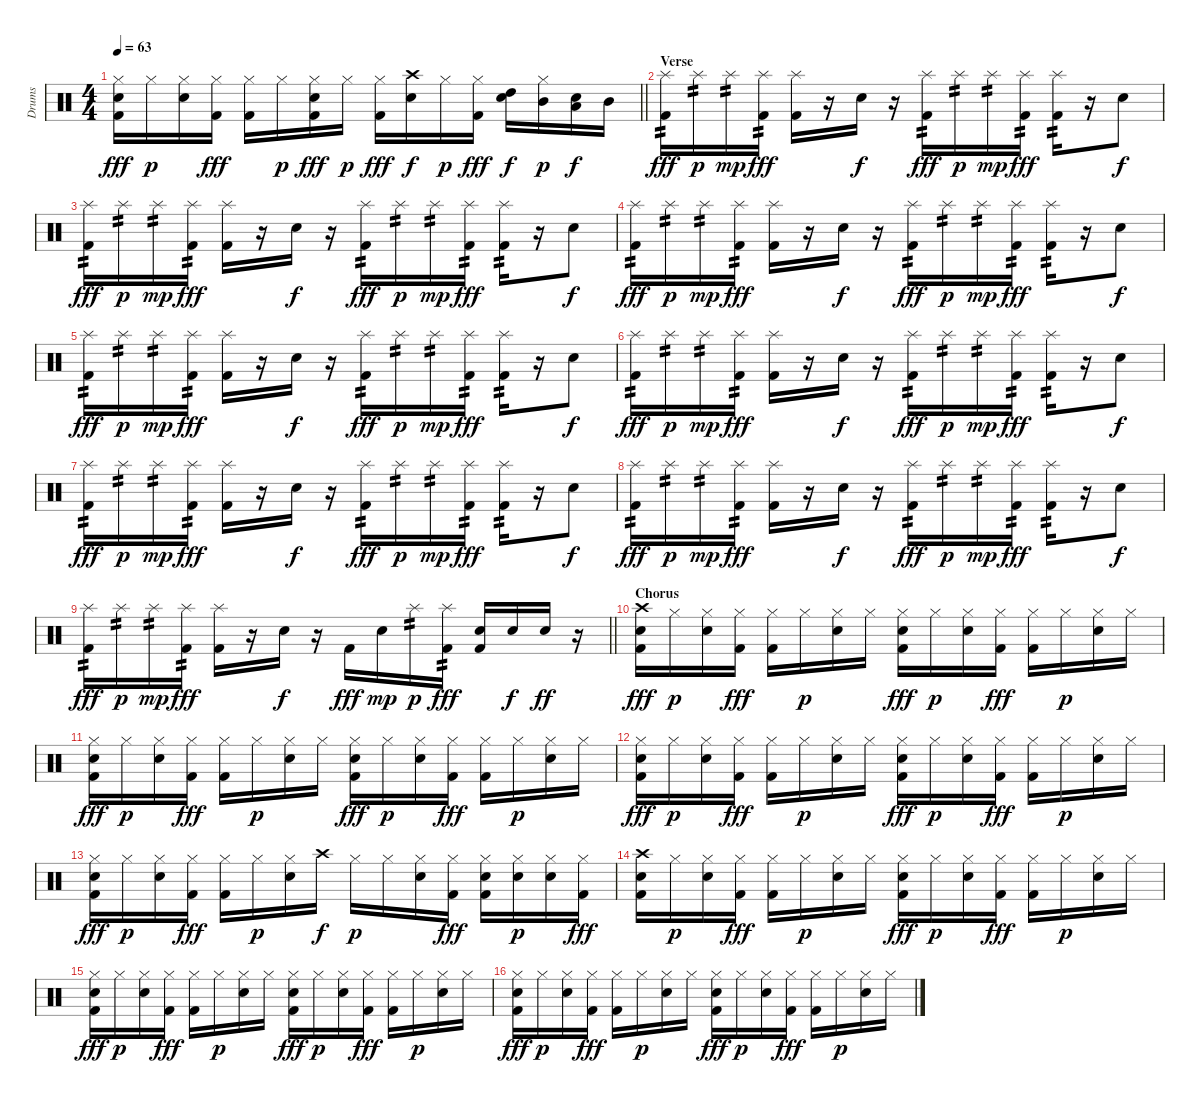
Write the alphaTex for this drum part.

\track ("Drums" "Drums") {instrument percussion}
\staff {score}
\articulation defaults
\ts (4 4)
\tempo 63
\clef neutral
\barLineRight lightlight
\ks c
("Electric Snare (hit)" "Hi-Hat (closed)" "Kick (hit) 2").16{dy fff} "Hi-Hat (closed)".16{dy p} ("Electric Snare (hit)" "Hi-Hat (closed)").16 ("Hi-Hat (closed)" "Kick (hit) 2").16{dy fff} ("Hi-Hat (closed)" "Kick (hit) 2").16 "Hi-Hat (closed)".16{dy p} ("Electric Snare (hit)" "Hi-Hat (closed)" "Kick (hit) 2").16{dy fff} "Hi-Hat (closed)".16{dy p} ("Hi-Hat (closed)" "Kick (hit) 2").16{dy fff} ("Electric Snare (hit)" "Crash high (hit)").16{dy f} "Hi-Hat (closed)".16{dy p} ("Hi-Hat (closed)" "Kick (hit) 2").16{dy fff} ("Electric Snare (hit)" "High Tom (hit)").16{dy f} ("Hi-Hat (closed)" "Mid Tom (hit)").16{dy p} ("Electric Snare (hit)" "Low Tom (hit)").16{dy f} "Mid Tom (hit)".16 |
\section ("" "Verse")
("Splash (hit)" "Kick (hit) 2").16{tp 2 dy fff} "Splash (hit)".16{tp 2 dy p} "Splash (hit)".16{tp 2 dy mp} ("Splash (hit)" "Kick (hit) 2").16{tp 2 dy fff} ("Splash (hit)" "Kick (hit) 2").16 r.16 "Electric Snare (hit)".16{dy f} r.16 ("Splash (hit)" "Kick (hit) 2").16{tp 2 dy fff} "Splash (hit)".16{tp 2 dy p} "Splash (hit)".16{tp 2 dy mp} ("Splash (hit)" "Kick (hit) 2").16{tp 2 dy fff} ("Splash (hit)" "Kick (hit) 2").16{tp 2} r.16 "Electric Snare (hit)".8{dy f} |
("Splash (hit)" "Kick (hit) 2").16{tp 2 dy fff} "Splash (hit)".16{tp 2 dy p} "Splash (hit)".16{tp 2 dy mp} ("Splash (hit)" "Kick (hit) 2").16{tp 2 dy fff} ("Splash (hit)" "Kick (hit) 2").16 r.16 "Electric Snare (hit)".16{dy f} r.16 ("Splash (hit)" "Kick (hit) 2").16{tp 2 dy fff} "Splash (hit)".16{tp 2 dy p} "Splash (hit)".16{tp 2 dy mp} ("Splash (hit)" "Kick (hit) 2").16{tp 2 dy fff} ("Splash (hit)" "Kick (hit) 2").16{tp 2} r.16 "Electric Snare (hit)".8{dy f} |
("Splash (hit)" "Kick (hit) 2").16{tp 2 dy fff} "Splash (hit)".16{tp 2 dy p} "Splash (hit)".16{tp 2 dy mp} ("Splash (hit)" "Kick (hit) 2").16{tp 2 dy fff} ("Splash (hit)" "Kick (hit) 2").16 r.16 "Electric Snare (hit)".16{dy f} r.16 ("Splash (hit)" "Kick (hit) 2").16{tp 2 dy fff} "Splash (hit)".16{tp 2 dy p} "Splash (hit)".16{tp 2 dy mp} ("Splash (hit)" "Kick (hit) 2").16{tp 2 dy fff} ("Splash (hit)" "Kick (hit) 2").16{tp 2} r.16 "Electric Snare (hit)".8{dy f} |
("Splash (hit)" "Kick (hit) 2").16{tp 2 dy fff} "Splash (hit)".16{tp 2 dy p} "Splash (hit)".16{tp 2 dy mp} ("Splash (hit)" "Kick (hit) 2").16{tp 2 dy fff} ("Splash (hit)" "Kick (hit) 2").16 r.16 "Electric Snare (hit)".16{dy f} r.16 ("Splash (hit)" "Kick (hit) 2").16{tp 2 dy fff} "Splash (hit)".16{tp 2 dy p} "Splash (hit)".16{tp 2 dy mp} ("Splash (hit)" "Kick (hit) 2").16{tp 2 dy fff} ("Splash (hit)" "Kick (hit) 2").16{tp 2} r.16 "Electric Snare (hit)".8{dy f} |
("Splash (hit)" "Kick (hit) 2").16{tp 2 dy fff} "Splash (hit)".16{tp 2 dy p} "Splash (hit)".16{tp 2 dy mp} ("Splash (hit)" "Kick (hit) 2").16{tp 2 dy fff} ("Splash (hit)" "Kick (hit) 2").16 r.16 "Electric Snare (hit)".16{dy f} r.16 ("Splash (hit)" "Kick (hit) 2").16{tp 2 dy fff} "Splash (hit)".16{tp 2 dy p} "Splash (hit)".16{tp 2 dy mp} ("Splash (hit)" "Kick (hit) 2").16{tp 2 dy fff} ("Splash (hit)" "Kick (hit) 2").16{tp 2} r.16 "Electric Snare (hit)".8{dy f} |
("Splash (hit)" "Kick (hit) 2").16{tp 2 dy fff} "Splash (hit)".16{tp 2 dy p} "Splash (hit)".16{tp 2 dy mp} ("Splash (hit)" "Kick (hit) 2").16{tp 2 dy fff} ("Splash (hit)" "Kick (hit) 2").16 r.16 "Electric Snare (hit)".16{dy f} r.16 ("Splash (hit)" "Kick (hit) 2").16{tp 2 dy fff} "Splash (hit)".16{tp 2 dy p} "Splash (hit)".16{tp 2 dy mp} ("Splash (hit)" "Kick (hit) 2").16{tp 2 dy fff} ("Splash (hit)" "Kick (hit) 2").16{tp 2} r.16 "Electric Snare (hit)".8{dy f} |
("Splash (hit)" "Kick (hit) 2").16{tp 2 dy fff} "Splash (hit)".16{tp 2 dy p} "Splash (hit)".16{tp 2 dy mp} ("Splash (hit)" "Kick (hit) 2").16{tp 2 dy fff} ("Splash (hit)" "Kick (hit) 2").16 r.16 "Electric Snare (hit)".16{dy f} r.16 ("Splash (hit)" "Kick (hit) 2").16{tp 2 dy fff} "Splash (hit)".16{tp 2 dy p} "Splash (hit)".16{tp 2 dy mp} ("Splash (hit)" "Kick (hit) 2").16{tp 2 dy fff} ("Splash (hit)" "Kick (hit) 2").16{tp 2} r.16 "Electric Snare (hit)".8{dy f} |
\barLineRight lightlight
("Splash (hit)" "Kick (hit) 2").16{tp 2 dy fff} "Splash (hit)".16{tp 2 dy p} "Splash (hit)".16{tp 2 dy mp} ("Splash (hit)" "Kick (hit) 2").16{tp 2 dy fff} ("Splash (hit)" "Kick (hit) 2").16 r.16 "Electric Snare (hit)".16{dy f} r.16 "Kick (hit) 2".16{dy fff} "Electric Snare (hit)".16{dy mp} "Splash (hit)".16{tp 2 dy p} ("Splash (hit)" "Kick (hit) 2").16{tp 2 dy fff} ("Electric Snare (hit)" "Kick (hit) 2").16 "Electric Snare (hit)".16{dy f} "Electric Snare (hit)".16{dy ff} r.16 |
\section ("" "Chorus")
("Electric Snare (hit)" "Crash high (hit)" "Kick (hit) 2").16{dy fff} "Hi-Hat (closed)".16{dy p} ("Electric Snare (hit)" "Hi-Hat (closed)").16 ("Hi-Hat (closed)" "Kick (hit) 2").16{dy fff} ("Hi-Hat (closed)" "Kick (hit) 2").16 "Hi-Hat (closed)".16{dy p} ("Electric Snare (hit)" "Hi-Hat (closed)").16 "Hi-Hat (closed)".16 ("Electric Snare (hit)" "Hi-Hat (closed)" "Kick (hit) 2").16{dy fff} "Hi-Hat (closed)".16{dy p} ("Electric Snare (hit)" "Hi-Hat (closed)").16 ("Hi-Hat (closed)" "Kick (hit) 2").16{dy fff} ("Hi-Hat (closed)" "Kick (hit) 2").16 "Hi-Hat (closed)".16{dy p} ("Electric Snare (hit)" "Hi-Hat (closed)").16 "Hi-Hat (closed)".16 |
("Electric Snare (hit)" "Hi-Hat (closed)" "Kick (hit) 2").16{dy fff} "Hi-Hat (closed)".16{dy p} ("Electric Snare (hit)" "Hi-Hat (closed)").16 ("Hi-Hat (closed)" "Kick (hit) 2").16{dy fff} ("Hi-Hat (closed)" "Kick (hit) 2").16 "Hi-Hat (closed)".16{dy p} ("Electric Snare (hit)" "Hi-Hat (closed)").16 "Hi-Hat (closed)".16 ("Electric Snare (hit)" "Hi-Hat (closed)" "Kick (hit) 2").16{dy fff} "Hi-Hat (closed)".16{dy p} ("Electric Snare (hit)" "Hi-Hat (closed)").16 ("Hi-Hat (closed)" "Kick (hit) 2").16{dy fff} ("Hi-Hat (closed)" "Kick (hit) 2").16 "Hi-Hat (closed)".16{dy p} ("Electric Snare (hit)" "Hi-Hat (closed)").16 "Hi-Hat (closed)".16 |
("Electric Snare (hit)" "Hi-Hat (closed)" "Kick (hit) 2").16{dy fff} "Hi-Hat (closed)".16{dy p} ("Electric Snare (hit)" "Hi-Hat (closed)").16 ("Hi-Hat (closed)" "Kick (hit) 2").16{dy fff} ("Hi-Hat (closed)" "Kick (hit) 2").16 "Hi-Hat (closed)".16{dy p} ("Electric Snare (hit)" "Hi-Hat (closed)").16 "Hi-Hat (closed)".16 ("Electric Snare (hit)" "Hi-Hat (closed)" "Kick (hit) 2").16{dy fff} "Hi-Hat (closed)".16{dy p} ("Electric Snare (hit)" "Hi-Hat (closed)").16 ("Hi-Hat (closed)" "Kick (hit) 2").16{dy fff} ("Hi-Hat (closed)" "Kick (hit) 2").16 "Hi-Hat (closed)".16{dy p} ("Electric Snare (hit)" "Hi-Hat (closed)").16 "Hi-Hat (closed)".16 |
("Electric Snare (hit)" "Hi-Hat (closed)" "Kick (hit) 2").16{dy fff} "Hi-Hat (closed)".16{dy p} ("Electric Snare (hit)" "Hi-Hat (closed)").16 ("Hi-Hat (closed)" "Kick (hit) 2").16{dy fff} ("Hi-Hat (closed)" "Kick (hit) 2").16 "Hi-Hat (closed)".16{dy p} ("Electric Snare (hit)" "Hi-Hat (closed)").16 "Crash high (hit)".16{dy f} "Hi-Hat (closed)".16{dy p} "Hi-Hat (closed)".16 ("Electric Snare (hit)" "Hi-Hat (closed)").16 ("Hi-Hat (closed)" "Kick (hit) 2").16{dy fff} ("Electric Snare (hit)" "Hi-Hat (closed)" "Kick (hit) 2").16 ("Electric Snare (hit)" "Hi-Hat (closed)").16{dy p} ("Electric Snare (hit)" "Hi-Hat (closed)").16 ("Hi-Hat (closed)" "Kick (hit) 2").16{dy fff} |
("Electric Snare (hit)" "Crash high (hit)" "Kick (hit) 2").16 "Hi-Hat (closed)".16{dy p} ("Electric Snare (hit)" "Hi-Hat (closed)").16 ("Hi-Hat (closed)" "Kick (hit) 2").16{dy fff} ("Hi-Hat (closed)" "Kick (hit) 2").16 "Hi-Hat (closed)".16{dy p} ("Electric Snare (hit)" "Hi-Hat (closed)").16 "Hi-Hat (closed)".16 ("Electric Snare (hit)" "Hi-Hat (closed)" "Kick (hit) 2").16{dy fff} "Hi-Hat (closed)".16{dy p} ("Electric Snare (hit)" "Hi-Hat (closed)").16 ("Hi-Hat (closed)" "Kick (hit) 2").16{dy fff} ("Hi-Hat (closed)" "Kick (hit) 2").16 "Hi-Hat (closed)".16{dy p} ("Electric Snare (hit)" "Hi-Hat (closed)").16 "Hi-Hat (closed)".16 |
("Electric Snare (hit)" "Hi-Hat (closed)" "Kick (hit) 2").16{dy fff} "Hi-Hat (closed)".16{dy p} ("Electric Snare (hit)" "Hi-Hat (closed)").16 ("Hi-Hat (closed)" "Kick (hit) 2").16{dy fff} ("Hi-Hat (closed)" "Kick (hit) 2").16 "Hi-Hat (closed)".16{dy p} ("Electric Snare (hit)" "Hi-Hat (closed)").16 "Hi-Hat (closed)".16 ("Electric Snare (hit)" "Hi-Hat (closed)" "Kick (hit) 2").16{dy fff} "Hi-Hat (closed)".16{dy p} ("Electric Snare (hit)" "Hi-Hat (closed)").16 ("Hi-Hat (closed)" "Kick (hit) 2").16{dy fff} ("Hi-Hat (closed)" "Kick (hit) 2").16 "Hi-Hat (closed)".16{dy p} ("Electric Snare (hit)" "Hi-Hat (closed)").16 "Hi-Hat (closed)".16 |
("Electric Snare (hit)" "Hi-Hat (closed)" "Kick (hit) 2").16{dy fff} "Hi-Hat (closed)".16{dy p} ("Electric Snare (hit)" "Hi-Hat (closed)").16 ("Hi-Hat (closed)" "Kick (hit) 2").16{dy fff} ("Hi-Hat (closed)" "Kick (hit) 2").16 "Hi-Hat (closed)".16{dy p} ("Electric Snare (hit)" "Hi-Hat (closed)").16 "Hi-Hat (closed)".16 ("Electric Snare (hit)" "Hi-Hat (closed)" "Kick (hit) 2").16{dy fff} "Hi-Hat (closed)".16{dy p} ("Electric Snare (hit)" "Hi-Hat (closed)").16 ("Hi-Hat (closed)" "Kick (hit) 2").16{dy fff} ("Hi-Hat (closed)" "Kick (hit) 2").16 "Hi-Hat (closed)".16{dy p} ("Electric Snare (hit)" "Hi-Hat (closed)").16 "Hi-Hat (closed)".16
